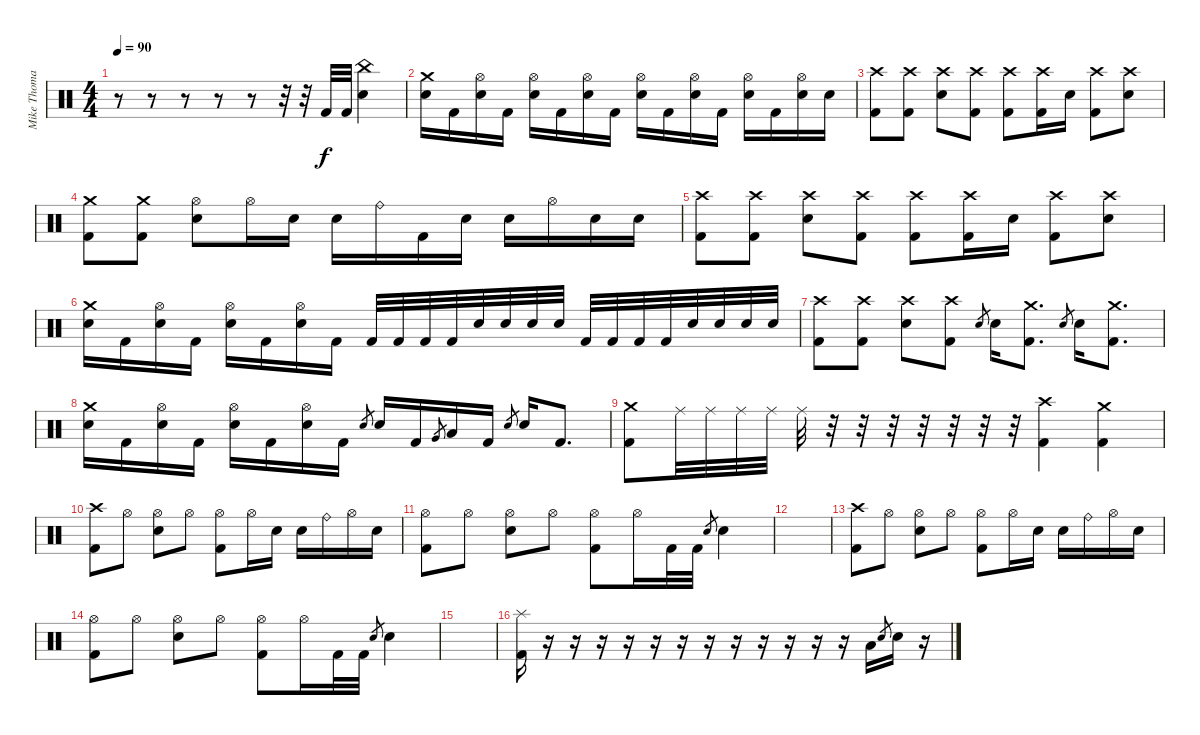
\track ("Mike Thomas (moose)" "Mike Thoma") {instrument percussion}
\staff {score}
\articulation defaults
\ts (4 4)
\tempo 90
\clef neutral
\ks c
r.8{dy f} r.8 r.8 r.8 r.8 r.32 r.32 "Kick (hit) 2".32 "Kick (hit) 2".32 ("China (hit)" "Electric Snare (hit)").4 |
("Crash medium (hit)" "Electric Snare (hit)").16 "Kick (hit) 2".16 ("Hi-Hat (open)" "Electric Snare (hit)").16 "Kick (hit) 2".16 ("Hi-Hat (open)" "Electric Snare (hit)").16 "Kick (hit) 2".16 ("Hi-Hat (open)" "Electric Snare (hit)").16 "Kick (hit) 2".16 ("Hi-Hat (open)" "Electric Snare (hit)").16 "Kick (hit) 2".16 ("Hi-Hat (open)" "Electric Snare (hit)").16 "Kick (hit) 2".16 ("Hi-Hat (open)" "Electric Snare (hit)").16 "Kick (hit) 2".16 ("Hi-Hat (open)" "Electric Snare (hit)").16 "Electric Snare (hit)".16 |
("Crash high (hit)" "Kick (hit) 2").8 ("Crash high (hit)" "Kick (hit) 2").8 ("Crash high (hit)" "Electric Snare (hit)").8 ("Crash high (hit)" "Kick (hit) 2").8 ("Crash high (hit)" "Kick (hit) 2").8 ("Crash high (hit)" "Kick (hit) 2").16 "Electric Snare (hit)".16 ("Crash high (hit)" "Kick (hit) 2").8 ("Crash high (hit)" "Electric Snare (hit)").8 |
("Crash medium (hit)" "Kick (hit) 2").8 ("Crash medium (hit)" "Kick (hit) 2").8 ("Hi-Hat (open)" "Electric Snare (hit)").8 "Hi-Hat (open)".16 "Electric Snare (hit)".16 "Electric Snare (hit)".16 "Ride (bell)".16 "Kick (hit) 2".16 "Electric Snare (hit)".16 "Electric Snare (hit)".16 "Hi-Hat (open)".16 "Electric Snare (hit)".16 "Electric Snare (hit)".16 |
("Crash high (hit)" "Kick (hit) 2").8 ("Crash high (hit)" "Kick (hit) 2").8 ("Crash high (hit)" "Electric Snare (hit)").8 ("Crash high (hit)" "Kick (hit) 2").8 ("Crash high (hit)" "Kick (hit) 2").8 ("Crash high (hit)" "Kick (hit) 2").16 "Electric Snare (hit)".16 ("Crash high (hit)" "Kick (hit) 2").8 ("Crash high (hit)" "Electric Snare (hit)").8 |
("Crash medium (hit)" "Electric Snare (hit)").16 "Kick (hit) 2".16 ("Hi-Hat (open)" "Electric Snare (hit)").16 "Kick (hit) 2".16 ("Hi-Hat (open)" "Electric Snare (hit)").16 "Kick (hit) 2".16 ("Hi-Hat (open)" "Electric Snare (hit)").16 "Kick (hit) 2".16 "Kick (hit) 2".32 "Kick (hit) 2".32 "Kick (hit) 2".32 "Kick (hit) 2".32 "Electric Snare (hit)".32 "Electric Snare (hit)".32 "Electric Snare (hit)".32 "Electric Snare (hit)".32 "Kick (hit) 2".32 "Kick (hit) 2".32 "Kick (hit) 2".32 "Kick (hit) 2".32 "Electric Snare (hit)".32 "Electric Snare (hit)".32 "Electric Snare (hit)".32 "Electric Snare (hit)".32 |
("Crash high (hit)" "Kick (hit) 2").8 ("Crash high (hit)" "Kick (hit) 2").8 ("Crash high (hit)" "Electric Snare (hit)").8 ("Crash high (hit)" "Kick (hit) 2").8 "Electric Snare (hit)".8{gr} "Electric Snare (hit)".16 ("Crash medium (hit)" "Kick (hit) 2").8{d} "Electric Snare (hit)".8{gr} "Electric Snare (hit)".16 ("Crash medium (hit)" "Kick (hit) 2").8{d} |
("Crash medium (hit)" "Electric Snare (hit)").16 "Kick (hit) 2".16 ("Hi-Hat (open)" "Electric Snare (hit)").16 "Kick (hit) 2".16 ("Hi-Hat (open)" "Electric Snare (hit)").16 "Kick (hit) 2".16 ("Hi-Hat (open)" "Electric Snare (hit)").16 "Kick (hit) 2".16 "Electric Snare (hit)".8{gr} "Electric Snare (hit)".16 "Kick (hit) 2".16 "Very Low Tom (hit)".8{gr} "Low Floor Tom (hit)".16 "Kick (hit) 2".16 "Electric Snare (hit)".8{gr} "Electric Snare (hit)".16 "Kick (hit) 2".8{d} |
("Crash medium (hit)" "Kick (hit) 2").8 "Ride (middle)".32 "Ride (middle)".32 "Ride (middle)".32 "Ride (middle)".32 "Ride (middle)".32 r.32 r.32 r.32 r.32 r.32 r.32 r.32 ("Crash high (hit)" "Kick (hit) 2").4 ("Crash medium (hit)" "Kick (hit) 2").4 |
("Crash high (hit)" "Kick (hit) 2").8 "Hi-Hat (open)".8 ("Hi-Hat (open)" "Electric Snare (hit)").8 "Hi-Hat (open)".8 ("Hi-Hat (open)" "Kick (hit) 2").8 "Hi-Hat (open)".16 "Electric Snare (hit)".16 "Electric Snare (hit)".16 "Ride (bell)".16 "Hi-Hat (open)".16 "Electric Snare (hit)".16 |
("Hi-Hat (open)" "Kick (hit) 2").8 "Hi-Hat (open)".8 ("Hi-Hat (open)" "Electric Snare (hit)").8 "Hi-Hat (open)".8 ("Hi-Hat (open)" "Kick (hit) 2").8 "Hi-Hat (open)".16 "Kick (hit) 2".32 "Kick (hit) 2".32 "Electric Snare (hit)".8{gr} "Electric Snare (hit)".4 |
|
("Crash high (hit)" "Kick (hit) 2").8 "Hi-Hat (open)".8 ("Hi-Hat (open)" "Electric Snare (hit)").8 "Hi-Hat (open)".8 ("Hi-Hat (open)" "Kick (hit) 2").8 "Hi-Hat (open)".16 "Electric Snare (hit)".16 "Electric Snare (hit)".16 "Ride (bell)".16 "Hi-Hat (open)".16 "Electric Snare (hit)".16 |
("Hi-Hat (open)" "Kick (hit) 2").8 "Hi-Hat (open)".8 ("Hi-Hat (open)" "Electric Snare (hit)").8 "Hi-Hat (open)".8 ("Hi-Hat (open)" "Kick (hit) 2").8 "Hi-Hat (open)".16 "Kick (hit) 2".32 "Kick (hit) 2".32 "Electric Snare (hit)".8{gr} "Electric Snare (hit)".4 |
|
("Splash (hit)" "Kick (hit) 2").16 r.16 r.16 r.16 r.16 r.16 r.16 r.16 r.16 r.16 r.16 r.16 r.16 "Low Floor Tom (hit)".16 "Electric Snare (hit)".8{gr} "Electric Snare (hit)".16 r.16
